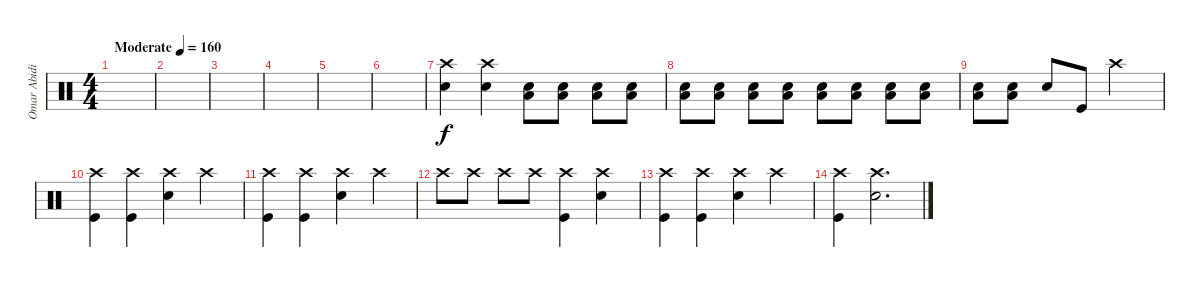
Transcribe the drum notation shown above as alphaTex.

\track ("Omar Abidi" "Omar Abidi") {instrument percussion}
\staff {score}
\articulation defaults
\ts (4 4)
\tempo (160 "Moderate")
\clef neutral
\ks c
|
|
|
|
|
|
("Crash high (hit)" "Snare (hit) 2").4{volume 16} ("Crash high (hit)" "Snare (hit) 2").4{volume 8} ("Low Floor Tom (hit)" "Snare (hit) 2").8{volume 16} ("Low Floor Tom (hit)" "Snare (hit) 2").8 ("Low Floor Tom (hit)" "Snare (hit) 2").8 ("Low Floor Tom (hit)" "Snare (hit) 2").8 |
("Low Floor Tom (hit)" "Snare (hit) 2").8 ("Low Floor Tom (hit)" "Snare (hit) 2").8 ("Low Floor Tom (hit)" "Snare (hit) 2").8 ("Low Floor Tom (hit)" "Snare (hit) 2").8 ("Low Floor Tom (hit)" "Snare (hit) 2").8 ("Low Floor Tom (hit)" "Snare (hit) 2").8 ("Low Floor Tom (hit)" "Snare (hit) 2").8 ("Low Floor Tom (hit)" "Snare (hit) 2").8 |
("Low Floor Tom (hit)" "Snare (hit) 2").8 ("Low Floor Tom (hit)" "Snare (hit) 2").8 "Snare (hit) 2".8 "Kick (hit)".8 "Crash high (hit)".2 |
("Crash high (hit)" "Kick (hit)").4 ("Crash high (hit)" "Kick (hit)").4 ("Crash high (hit)" "Snare (hit) 2").4 "Crash high (hit)".4 |
("Crash high (hit)" "Kick (hit)").4 ("Crash high (hit)" "Kick (hit)").4 ("Crash high (hit)" "Snare (hit) 2").4 "Crash high (hit)".4 |
"Crash high (hit)".8 "Crash high (hit)".8 "Crash high (hit)".8 "Crash high (hit)".8 ("Crash high (hit)" "Kick (hit)").4 ("Crash high (hit)" "Snare (hit) 2").4 |
("Crash high (hit)" "Kick (hit)").4 ("Crash high (hit)" "Kick (hit)").4 ("Crash high (hit)" "Snare (hit) 2").4 "Crash high (hit)".4 |
("Crash high (hit)" "Kick (hit)").4 ("Crash high (hit)" "Snare (hit) 2").2{d}
